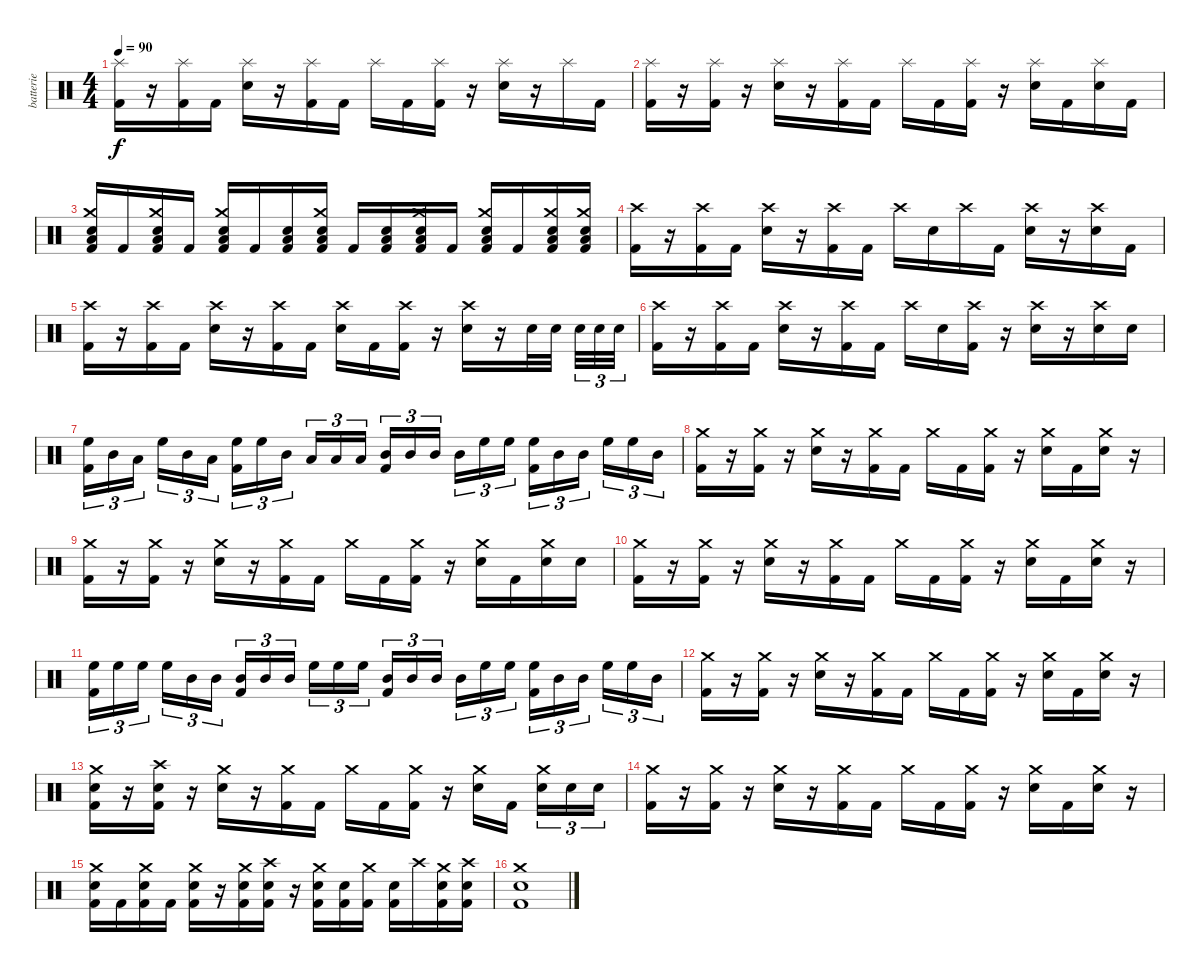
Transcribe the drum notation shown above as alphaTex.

\track ("batterie" "batterie") {instrument percussion}
\staff {score}
\articulation defaults
\ts (4 4)
\tempo 90
\clef neutral
\ks c
("Splash (hit)" "Kick (hit) 2").16{dy f} r.16 ("Splash (hit)" "Kick (hit) 2").16 "Kick (hit) 2".16 ("Splash (hit)" "Electric Snare (hit)").16 r.16 ("Splash (hit)" "Kick (hit) 2").16 "Kick (hit) 2".16 "Splash (hit)".16 "Kick (hit) 2".16 ("Splash (hit)" "Kick (hit) 2").16 r.16 ("Splash (hit)" "Electric Snare (hit)").16 r.16 "Splash (hit)".16 "Kick (hit) 2".16 |
("Splash (hit)" "Kick (hit) 2").16 r.16 ("Splash (hit)" "Kick (hit) 2").16 r.16 ("Splash (hit)" "Electric Snare (hit)").16 r.16 ("Splash (hit)" "Kick (hit) 2").16 "Kick (hit) 2".16 "Splash (hit)".16 "Kick (hit) 2".16 ("Splash (hit)" "Kick (hit) 2").16 r.16 ("Splash (hit)" "Electric Snare (hit)").16 "Kick (hit) 2".16 ("Splash (hit)" "Electric Snare (hit)").16 "Kick (hit) 2".16 |
("Crash medium (hit)" "Electric Snare (hit)" "Low Floor Tom (hit)" "Kick (hit) 2").16 "Kick (hit) 2".16 ("Crash medium (hit)" "Electric Snare (hit)" "Low Floor Tom (hit)" "Kick (hit) 2").16 "Kick (hit) 2".16 ("Crash medium (hit)" "Electric Snare (hit)" "Low Floor Tom (hit)" "Kick (hit) 2").16 "Kick (hit) 2".16 ("Electric Snare (hit)" "Low Floor Tom (hit)" "Kick (hit) 2").16 ("Crash medium (hit)" "Electric Snare (hit)" "Low Floor Tom (hit)" "Kick (hit) 2").16 "Kick (hit) 2".16 ("Electric Snare (hit)" "Low Floor Tom (hit)" "Kick (hit) 2").16 ("Crash medium (hit)" "Electric Snare (hit)" "Low Floor Tom (hit)" "Kick (hit) 2").16 "Kick (hit) 2".16 ("Crash medium (hit)" "Electric Snare (hit)" "Low Floor Tom (hit)" "Kick (hit) 2").16 "Kick (hit) 2".16 ("Crash medium (hit)" "Electric Snare (hit)" "Low Floor Tom (hit)" "Kick (hit) 2").16 ("Crash medium (hit)" "Electric Snare (hit)" "Low Floor Tom (hit)" "Kick (hit) 2").16 |
("Crash high (hit)" "Kick (hit) 2").16 r.16 ("Crash high (hit)" "Kick (hit) 2").16 "Kick (hit) 2".16 ("Crash high (hit)" "Electric Snare (hit)").16 r.16 ("Crash high (hit)" "Kick (hit) 2").16 "Kick (hit) 2".16 "Crash high (hit)".16 "Electric Snare (hit)".16 "Crash high (hit)".16 "Kick (hit) 2".16 ("Crash high (hit)" "Electric Snare (hit)").16 r.16 ("Crash high (hit)" "Electric Snare (hit)").16 "Kick (hit) 2".16 |
("Crash high (hit)" "Kick (hit) 2").16 r.16 ("Crash high (hit)" "Kick (hit) 2").16 "Kick (hit) 2".16 ("Crash high (hit)" "Electric Snare (hit)").16 r.16 ("Crash high (hit)" "Kick (hit) 2").16 "Kick (hit) 2".16 ("Crash high (hit)" "Electric Snare (hit)").16 "Kick (hit) 2".16 ("Crash high (hit)" "Kick (hit) 2").16 r.16 ("Crash high (hit)" "Electric Snare (hit)").16 r.16 "Snare (hit) 2".32 "Snare (hit) 2".32 "Snare (hit) 2".32{tu (3 2)} "Electric Snare (hit)".32{tu (3 2)} "Electric Snare (hit)".32{tu (3 2)} |
("Crash high (hit)" "Kick (hit) 2").16 r.16 ("Crash high (hit)" "Kick (hit) 2").16 "Kick (hit) 2".16 ("Crash high (hit)" "Electric Snare (hit)").16 r.16 ("Crash high (hit)" "Kick (hit) 2").16 "Kick (hit) 2".16 "Crash high (hit)".16 "Electric Snare (hit)".16 ("Crash high (hit)" "Kick (hit) 2").16 r.16 ("Crash high (hit)" "Electric Snare (hit)").16 r.16 ("Crash high (hit)" "Electric Snare (hit)").16 "Electric Snare (hit)".16 |
("High Floor Tom (hit)" "Kick (hit) 2").16{tu (3 2)} "Mid Tom (hit)".16{tu (3 2)} "Low Tom (hit)".16{tu (3 2)} "High Floor Tom (hit)".16{tu (3 2)} "Mid Tom (hit)".16{tu (3 2)} "Low Tom (hit)".16{tu (3 2)} ("High Floor Tom (hit)" "Kick (hit) 2").16{tu (3 2)} "High Floor Tom (hit)".16{tu (3 2)} "Mid Tom (hit)".16{tu (3 2)} "Low Tom (hit)".16{tu (3 2)} "Low Tom (hit)".16{tu (3 2)} "Low Tom (hit)".16{tu (3 2)} ("Mid Tom (hit)" "Kick (hit) 2").16{tu (3 2)} "Mid Tom (hit)".16{tu (3 2)} "Mid Tom (hit)".16{tu (3 2)} "Mid Tom (hit)".16{tu (3 2)} "High Floor Tom (hit)".16{tu (3 2)} "High Floor Tom (hit)".16{tu (3 2)} ("High Floor Tom (hit)" "Kick (hit) 2").16{tu (3 2)} "Mid Tom (hit)".16{tu (3 2)} "Mid Tom (hit)".16{tu (3 2)} "High Floor Tom (hit)".16{tu (3 2)} "High Floor Tom (hit)".16{tu (3 2)} "Mid Tom (hit)".16{tu (3 2)} |
("Crash medium (hit)" "Kick (hit) 2").16 r.16 ("Crash medium (hit)" "Kick (hit) 2").16 r.16 ("Crash medium (hit)" "Electric Snare (hit)").16 r.16 ("Crash medium (hit)" "Kick (hit) 2").16 "Kick (hit) 2".16 "Crash medium (hit)".16 "Kick (hit) 2".16 ("Crash medium (hit)" "Kick (hit) 2").16 r.16 ("Crash medium (hit)" "Electric Snare (hit)").16 "Kick (hit) 2".16 ("Crash medium (hit)" "Electric Snare (hit)").16 r.16 |
("Crash medium (hit)" "Kick (hit) 2").16 r.16 ("Crash medium (hit)" "Kick (hit) 2").16 r.16 ("Crash medium (hit)" "Electric Snare (hit)").16 r.16 ("Crash medium (hit)" "Kick (hit) 2").16 "Kick (hit) 2".16 "Crash medium (hit)".16 "Kick (hit) 2".16 ("Crash medium (hit)" "Kick (hit) 2").16 r.16 ("Crash medium (hit)" "Electric Snare (hit)").16 "Kick (hit) 2".16 ("Crash medium (hit)" "Electric Snare (hit)").16 "Electric Snare (hit)".16 |
("Crash medium (hit)" "Kick (hit) 2").16 r.16 ("Crash medium (hit)" "Kick (hit) 2").16 r.16 ("Crash medium (hit)" "Electric Snare (hit)").16 r.16 ("Crash medium (hit)" "Kick (hit) 2").16 "Kick (hit) 2".16 "Crash medium (hit)".16 "Kick (hit) 2".16 ("Crash medium (hit)" "Kick (hit) 2").16 r.16 ("Crash medium (hit)" "Electric Snare (hit)").16 "Kick (hit) 2".16 ("Crash medium (hit)" "Electric Snare (hit)").16 r.16 |
("High Floor Tom (hit)" "Kick (hit) 2").16{tu (3 2)} "High Floor Tom (hit)".16{tu (3 2)} "High Floor Tom (hit)".16{tu (3 2)} "High Floor Tom (hit)".16{tu (3 2)} "Mid Tom (hit)".16{tu (3 2)} "Mid Tom (hit)".16{tu (3 2)} ("Mid Tom (hit)" "Kick (hit) 2").16{tu (3 2)} "Mid Tom (hit)".16{tu (3 2)} "Mid Tom (hit)".16{tu (3 2)} "High Floor Tom (hit)".16{tu (3 2)} "High Floor Tom (hit)".16{tu (3 2)} "High Floor Tom (hit)".16{tu (3 2)} ("Mid Tom (hit)" "Kick (hit) 2").16{tu (3 2)} "Mid Tom (hit)".16{tu (3 2)} "Mid Tom (hit)".16{tu (3 2)} "Mid Tom (hit)".16{tu (3 2)} "High Floor Tom (hit)".16{tu (3 2)} "High Floor Tom (hit)".16{tu (3 2)} ("High Floor Tom (hit)" "Kick (hit) 2").16{tu (3 2)} "Mid Tom (hit)".16{tu (3 2)} "Mid Tom (hit)".16{tu (3 2)} "High Floor Tom (hit)".16{tu (3 2)} "High Floor Tom (hit)".16{tu (3 2)} "Mid Tom (hit)".16{tu (3 2)} |
("Crash medium (hit)" "Kick (hit) 2").16 r.16 ("Crash medium (hit)" "Kick (hit) 2").16 r.16 ("Crash medium (hit)" "Electric Snare (hit)").16 r.16 ("Crash medium (hit)" "Kick (hit) 2").16 "Kick (hit) 2".16 "Crash medium (hit)".16 "Kick (hit) 2".16 ("Crash medium (hit)" "Kick (hit) 2").16 r.16 ("Crash medium (hit)" "Electric Snare (hit)").16 "Kick (hit) 2".16 ("Crash medium (hit)" "Electric Snare (hit)").16 r.16 |
("Crash medium (hit)" "Electric Snare (hit)" "Kick (hit) 2").16 r.16 ("Crash high (hit)" "Electric Snare (hit)" "Kick (hit) 2").16 r.16 ("Crash medium (hit)" "Electric Snare (hit)").16 r.16 ("Crash medium (hit)" "Kick (hit) 2").16 "Kick (hit) 2".16 "Crash medium (hit)".16 "Kick (hit) 2".16 ("Crash medium (hit)" "Kick (hit) 2").16 r.16 ("Crash medium (hit)" "Electric Snare (hit)").16 "Kick (hit) 2".16 ("Crash medium (hit)" "Electric Snare (hit)").16{tu (3 2)} "Electric Snare (hit)".16{tu (3 2)} "Electric Snare (hit)".16{tu (3 2)} |
("Crash medium (hit)" "Kick (hit) 2").16 r.16 ("Crash medium (hit)" "Kick (hit) 2").16 r.16 ("Crash medium (hit)" "Electric Snare (hit)").16 r.16 ("Crash medium (hit)" "Kick (hit) 2").16 "Kick (hit) 2".16 "Crash medium (hit)".16 "Kick (hit) 2".16 ("Crash medium (hit)" "Kick (hit) 2").16 r.16 ("Crash medium (hit)" "Electric Snare (hit)").16 "Kick (hit) 2".16 ("Crash medium (hit)" "Electric Snare (hit)").16 r.16 |
("Crash medium (hit)" "Electric Snare (hit)" "Kick (hit) 2").16 "Kick (hit) 2".16 ("Crash medium (hit)" "Electric Snare (hit)" "Kick (hit) 2").16 "Kick (hit) 2".16 ("Crash medium (hit)" "Electric Snare (hit)" "Kick (hit) 2").16 r.16 ("Crash medium (hit)" "Electric Snare (hit)" "Kick (hit) 2").16 ("Crash high (hit)" "Electric Snare (hit)" "Kick (hit) 2").16 r.16 ("Crash medium (hit)" "Electric Snare (hit)" "Kick (hit) 2").16 ("Electric Snare (hit)" "Kick (hit) 2").16 ("Crash medium (hit)" "Kick (hit) 2").16 ("Electric Snare (hit)" "Kick (hit) 2").16 "Crash high (hit)".16 ("Crash medium (hit)" "Electric Snare (hit)" "Kick (hit) 2").16 ("Crash high (hit)" "Electric Snare (hit)" "Kick (hit) 2").16 |
("Crash medium (hit)" "Electric Snare (hit)" "Kick (hit) 2").1
